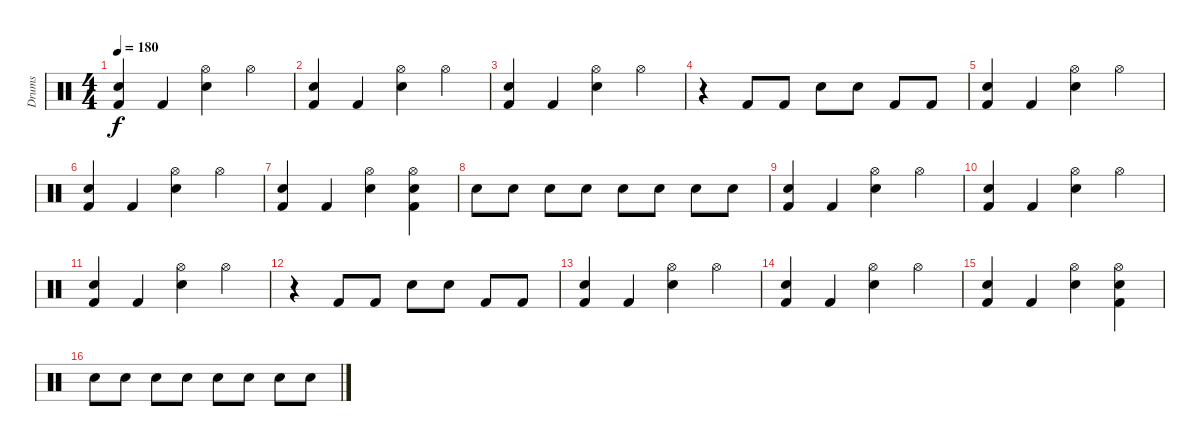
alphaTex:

\track ("Drums" "Drums") {instrument percussion}
\staff {score}
\articulation defaults
\ts (4 4)
\tempo 180
\clef neutral
\ks c
("Kick (hit) 2" "Snare (hit) 2").4{dy f} "Kick (hit) 2".4 ("Snare (hit) 2" "Hi-Hat (open)").4 "Hi-Hat (open)".4 |
("Kick (hit) 2" "Snare (hit) 2").4 "Kick (hit) 2".4 ("Snare (hit) 2" "Hi-Hat (open)").4 "Hi-Hat (open)".4 |
("Kick (hit) 2" "Snare (hit) 2").4 "Kick (hit) 2".4 ("Snare (hit) 2" "Hi-Hat (open)").4 "Hi-Hat (open)".4 |
r.4 "Kick (hit) 2".8 "Kick (hit) 2".8 "Snare (hit) 2".8 "Snare (hit) 2".8 "Kick (hit) 2".8 "Kick (hit) 2".8 |
("Kick (hit) 2" "Snare (hit) 2").4 "Kick (hit) 2".4 ("Snare (hit) 2" "Hi-Hat (open)").4 "Hi-Hat (open)".4 |
("Kick (hit) 2" "Snare (hit) 2").4 "Kick (hit) 2".4 ("Snare (hit) 2" "Hi-Hat (open)").4 "Hi-Hat (open)".4 |
("Kick (hit) 2" "Snare (hit) 2").4 "Kick (hit) 2".4 ("Snare (hit) 2" "Hi-Hat (open)").4 ("Kick (hit) 2" "Snare (hit) 2" "Hi-Hat (open)").4 |
"Snare (hit) 2".8 "Snare (hit) 2".8 "Snare (hit) 2".8 "Snare (hit) 2".8 "Snare (hit) 2".8 "Snare (hit) 2".8 "Snare (hit) 2".8 "Snare (hit) 2".8 |
("Kick (hit) 2" "Snare (hit) 2").4 "Kick (hit) 2".4 ("Snare (hit) 2" "Hi-Hat (open)").4 "Hi-Hat (open)".4 |
("Kick (hit) 2" "Snare (hit) 2").4 "Kick (hit) 2".4 ("Snare (hit) 2" "Hi-Hat (open)").4 "Hi-Hat (open)".4 |
("Kick (hit) 2" "Snare (hit) 2").4 "Kick (hit) 2".4 ("Snare (hit) 2" "Hi-Hat (open)").4 "Hi-Hat (open)".4 |
r.4 "Kick (hit) 2".8 "Kick (hit) 2".8 "Snare (hit) 2".8 "Snare (hit) 2".8 "Kick (hit) 2".8 "Kick (hit) 2".8 |
("Kick (hit) 2" "Snare (hit) 2").4 "Kick (hit) 2".4 ("Snare (hit) 2" "Hi-Hat (open)").4 "Hi-Hat (open)".4 |
("Kick (hit) 2" "Snare (hit) 2").4 "Kick (hit) 2".4 ("Snare (hit) 2" "Hi-Hat (open)").4 "Hi-Hat (open)".4 |
("Kick (hit) 2" "Snare (hit) 2").4 "Kick (hit) 2".4 ("Snare (hit) 2" "Hi-Hat (open)").4 ("Kick (hit) 2" "Snare (hit) 2" "Hi-Hat (open)").4 |
"Snare (hit) 2".8 "Snare (hit) 2".8 "Snare (hit) 2".8 "Snare (hit) 2".8 "Snare (hit) 2".8 "Snare (hit) 2".8 "Snare (hit) 2".8 "Snare (hit) 2".8
